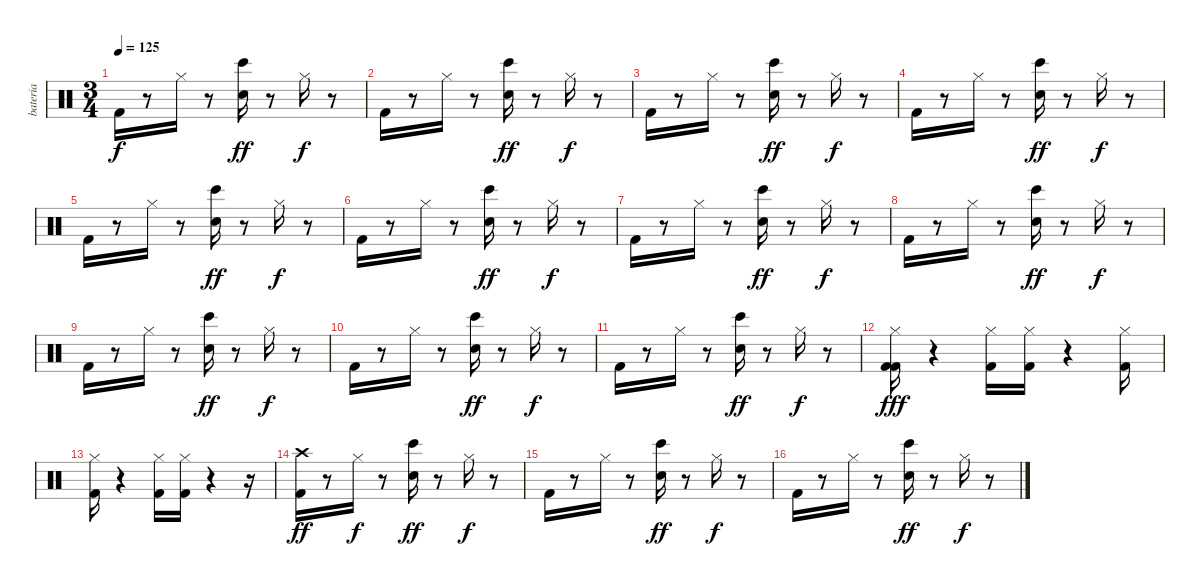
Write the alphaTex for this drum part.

\track ("bateria" "bateria") {instrument percussion}
\staff {score}
\articulation defaults
\ts (3 4)
\tempo 125
\clef neutral
\ks c "Kick (hit) 2".16{dy f volume 15 balance 8}
r.8 "Hi-Hat (closed)".16 r.8 ("Bongo High (hit)" "Snare (hit) 2").16{dy ff} r.8 "Hi-Hat (closed)".16{dy f volume 15 balance 8} r.8 |
"Kick (hit) 2".16 r.8 "Hi-Hat (closed)".16 r.8 ("Snare (hit) 2" "Bongo High (hit)").16{dy ff volume 15 balance 8} r.8 "Hi-Hat (closed)".16{dy f} r.8 |
"Kick (hit) 2".16{volume 15 balance 8} r.8 "Hi-Hat (closed)".16 r.8 ("Bongo High (hit)" "Snare (hit) 2").16{dy ff} r.8 "Hi-Hat (closed)".16{dy f volume 15 balance 8} r.8 |
"Kick (hit) 2".16{volume 15 balance 8} r.8 "Hi-Hat (closed)".16 r.8 ("Bongo High (hit)" "Snare (hit) 2").16{dy ff} r.8 "Hi-Hat (closed)".16{dy f volume 15 balance 8} r.8 |
"Kick (hit) 2".16 r.8 "Hi-Hat (closed)".16 r.8 ("Snare (hit) 2" "Bongo High (hit)").16{dy ff volume 15 balance 8} r.8 "Hi-Hat (closed)".16{dy f} r.8 |
"Kick (hit) 2".16{volume 15 balance 8} r.8 "Hi-Hat (closed)".16 r.8 ("Bongo High (hit)" "Snare (hit) 2").16{dy ff} r.8 "Hi-Hat (closed)".16{dy f volume 15 balance 8} r.8 |
"Kick (hit) 2".16{volume 15 balance 8} r.8 "Hi-Hat (closed)".16 r.8 ("Bongo High (hit)" "Snare (hit) 2").16{dy ff} r.8 "Hi-Hat (closed)".16{dy f volume 15 balance 8} r.8 |
"Kick (hit) 2".16 r.8 "Hi-Hat (closed)".16 r.8 ("Snare (hit) 2" "Bongo High (hit)").16{dy ff volume 15 balance 8} r.8 "Hi-Hat (closed)".16{dy f} r.8 |
"Kick (hit) 2".16{volume 15 balance 8} r.8 "Hi-Hat (closed)".16 r.8 ("Bongo High (hit)" "Snare (hit) 2").16{dy ff} r.8 "Hi-Hat (closed)".16{dy f volume 15 balance 8} r.8 |
"Kick (hit) 2".16{volume 15 balance 8} r.8 "Hi-Hat (closed)".16 r.8 ("Bongo High (hit)" "Snare (hit) 2").16{dy ff} r.8 "Hi-Hat (closed)".16{dy f volume 15 balance 8} r.8 |
"Kick (hit) 2".16 r.8 "Hi-Hat (closed)".16 r.8 ("Snare (hit) 2" "Bongo High (hit)").16{dy ff volume 15 balance 8} r.8 "Hi-Hat (closed)".16{dy f} r.8 |
("Hi-Hat (closed)" "Kick (hit) 2" "Kick (hit) 2").16{dy fff volume 15 balance 8} r.4 ("Kick (hit) 2" "Hi-Hat (closed)").16 ("Kick (hit) 2" "Hi-Hat (closed)").16 r.4 ("Kick (hit) 2" "Hi-Hat (closed)").16{volume 15 balance 8} |
("Kick (hit) 2" "Hi-Hat (closed)").16{volume 15 balance 8} r.4 ("Kick (hit) 2" "Hi-Hat (closed)").16 ("Kick (hit) 2" "Hi-Hat (closed)").16 r.4 r.16 |
("Crash high (hit)" "Kick (hit) 2").16{dy ff volume 15 balance 8} r.8 "Hi-Hat (closed)".16{dy f} r.8 ("Snare (hit) 2" "Bongo High (hit)").16{dy ff volume 15 balance 8} r.8 "Hi-Hat (closed)".16{dy f} r.8 |
"Kick (hit) 2".16{volume 15 balance 8} r.8 "Hi-Hat (closed)".16 r.8 ("Bongo High (hit)" "Snare (hit) 2").16{dy ff} r.8 "Hi-Hat (closed)".16{dy f volume 15 balance 8} r.8 |
"Kick (hit) 2".16{volume 15 balance 8} r.8 "Hi-Hat (closed)".16 r.8 ("Bongo High (hit)" "Snare (hit) 2").16{dy ff} r.8 "Hi-Hat (closed)".16{dy f volume 15 balance 8} r.8
